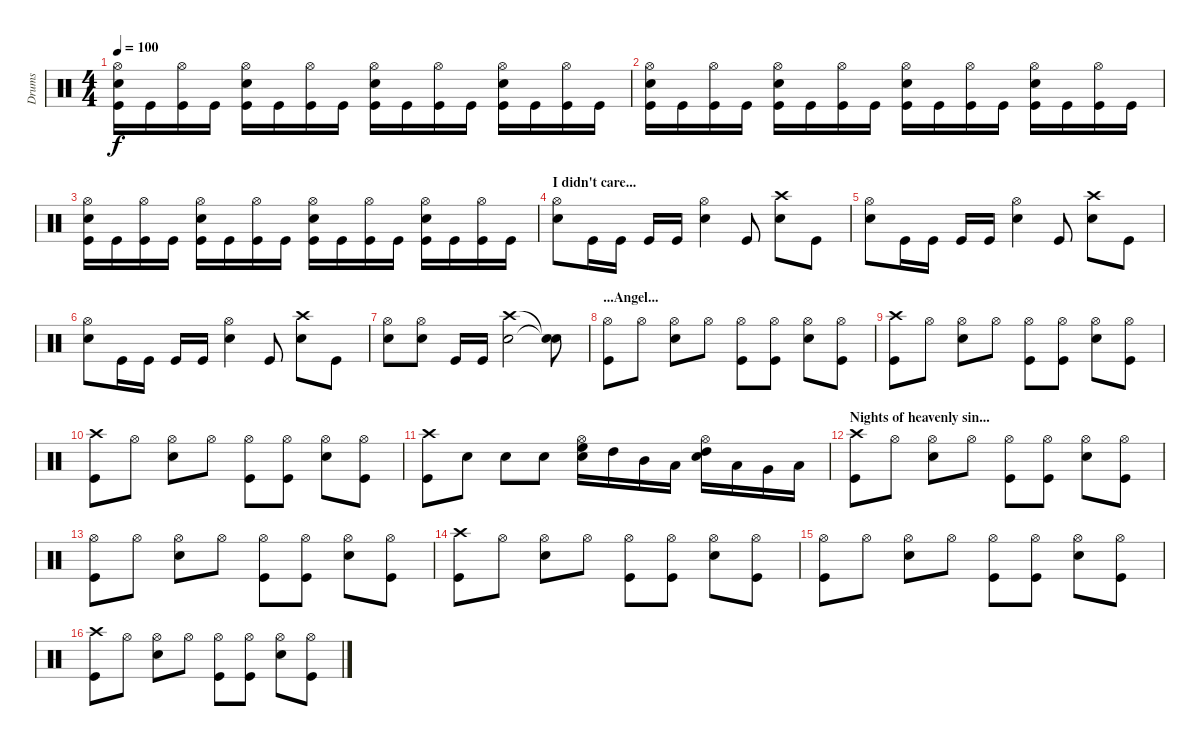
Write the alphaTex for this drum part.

\track ("Drums" "Drums") {instrument percussion}
\staff {score}
\articulation defaults
\ts (4 4)
\tempo 100
\clef neutral
\ks c
("Hi-Hat (open)" "Snare (hit) 2" "Kick (hit)").16{dy f} "Kick (hit)".16 ("Hi-Hat (open)" "Kick (hit)").16 "Kick (hit)".16 ("Hi-Hat (open)" "Snare (hit) 2" "Kick (hit)").16 "Kick (hit)".16 ("Hi-Hat (open)" "Kick (hit)").16 "Kick (hit)".16 ("Hi-Hat (open)" "Snare (hit) 2" "Kick (hit)").16 "Kick (hit)".16 ("Hi-Hat (open)" "Kick (hit)").16 "Kick (hit)".16 ("Hi-Hat (open)" "Snare (hit) 2" "Kick (hit)").16 "Kick (hit)".16 ("Hi-Hat (open)" "Kick (hit)").16 "Kick (hit)".16 |
("Hi-Hat (open)" "Snare (hit) 2" "Kick (hit)").16 "Kick (hit)".16 ("Hi-Hat (open)" "Kick (hit)").16 "Kick (hit)".16 ("Hi-Hat (open)" "Snare (hit) 2" "Kick (hit)").16 "Kick (hit)".16 ("Hi-Hat (open)" "Kick (hit)").16 "Kick (hit)".16 ("Hi-Hat (open)" "Snare (hit) 2" "Kick (hit)").16 "Kick (hit)".16 ("Hi-Hat (open)" "Kick (hit)").16 "Kick (hit)".16 ("Hi-Hat (open)" "Snare (hit) 2" "Kick (hit)").16 "Kick (hit)".16 ("Hi-Hat (open)" "Kick (hit)").16 "Kick (hit)".16 |
("Hi-Hat (open)" "Snare (hit) 2" "Kick (hit)").16 "Kick (hit)".16 ("Hi-Hat (open)" "Kick (hit)").16 "Kick (hit)".16 ("Hi-Hat (open)" "Snare (hit) 2" "Kick (hit)").16 "Kick (hit)".16 ("Hi-Hat (open)" "Kick (hit)").16 "Kick (hit)".16 ("Hi-Hat (open)" "Snare (hit) 2" "Kick (hit)").16 "Kick (hit)".16 ("Hi-Hat (open)" "Kick (hit)").16 "Kick (hit)".16 ("Hi-Hat (open)" "Snare (hit) 2" "Kick (hit)").16 "Kick (hit)".16 ("Hi-Hat (open)" "Kick (hit)").16 "Kick (hit)".16 |
\section ("" "I didn't care...")
("Hi-Hat (open)" "Snare (hit) 2").8 "Kick (hit)".16 "Kick (hit)".16 "Kick (hit)".16 "Kick (hit)".16 ("Hi-Hat (open)" "Snare (hit) 2").4 "Kick (hit)".8 ("Crash high (hit)" "Snare (hit) 2").8 "Kick (hit)".8 |
("Hi-Hat (open)" "Snare (hit) 2").8 "Kick (hit)".16 "Kick (hit)".16 "Kick (hit)".16 "Kick (hit)".16 ("Hi-Hat (open)" "Snare (hit) 2").4 "Kick (hit)".8 ("Crash high (hit)" "Snare (hit) 2").8 "Kick (hit)".8 |
("Hi-Hat (open)" "Snare (hit) 2").8 "Kick (hit)".16 "Kick (hit)".16 "Kick (hit)".16 "Kick (hit)".16 ("Hi-Hat (open)" "Snare (hit) 2").4 "Kick (hit)".8 ("Crash high (hit)" "Snare (hit) 2").8 "Kick (hit)".8 |
("Hi-Hat (open)" "Snare (hit) 2").8 ("Hi-Hat (open)" "Snare (hit) 2").8 "Kick (hit)".16 "Kick (hit)".16 ("Crash high (hit)" "Snare (hit) 2").2 ("Snare (hit)"{t} "Snare (hit)"{t}).8 |
\section ("" "...Angel...")
("Hi-Hat (open)" "Kick (hit)").8 "Hi-Hat (open)".8 ("Hi-Hat (open)" "Snare (hit) 2").8 "Hi-Hat (open)".8 ("Hi-Hat (open)" "Kick (hit)").8 ("Hi-Hat (open)" "Kick (hit)").8 ("Hi-Hat (open)" "Snare (hit) 2").8 ("Hi-Hat (open)" "Kick (hit)").8 |
("Crash high (hit)" "Kick (hit)").8 "Hi-Hat (open)".8 ("Hi-Hat (open)" "Snare (hit) 2").8 "Hi-Hat (open)".8 ("Hi-Hat (open)" "Kick (hit)").8 ("Hi-Hat (open)" "Kick (hit)").8 ("Hi-Hat (open)" "Snare (hit) 2").8 ("Hi-Hat (open)" "Kick (hit)").8 |
("Crash high (hit)" "Kick (hit)").8 "Hi-Hat (open)".8 ("Hi-Hat (open)" "Snare (hit) 2").8 "Hi-Hat (open)".8 ("Hi-Hat (open)" "Kick (hit)").8 ("Hi-Hat (open)" "Kick (hit)").8 ("Hi-Hat (open)" "Snare (hit) 2").8 ("Hi-Hat (open)" "Kick (hit)").8 |
("Crash high (hit)" "Kick (hit)").8 "Snare (hit) 2".8 "Snare (hit) 2".8 "Snare (hit) 2".8 ("Hi-Hat (open)" "Snare (hit) 2" "High Floor Tom (hit)").16 "High Tom (hit)".16 "Mid Tom (hit)".16 "Low Tom (hit)".16 ("Hi-Hat (open)" "Snare (hit) 2" "High Tom (hit)").16 "Low Tom (hit)".16 "Very Low Tom (hit)".16 "Low Floor Tom (hit)".16 |
\section ("" "Nights of heavenly sin...")
("Crash high (hit)" "Kick (hit)").8 "Hi-Hat (open)".8 ("Hi-Hat (open)" "Snare (hit) 2").8 "Hi-Hat (open)".8 ("Hi-Hat (open)" "Kick (hit)").8 ("Hi-Hat (open)" "Kick (hit)").8 ("Hi-Hat (open)" "Snare (hit) 2").8 ("Hi-Hat (open)" "Kick (hit)").8 |
("Hi-Hat (open)" "Kick (hit)").8 "Hi-Hat (open)".8 ("Hi-Hat (open)" "Snare (hit) 2").8 "Hi-Hat (open)".8 ("Hi-Hat (open)" "Kick (hit)").8 ("Hi-Hat (open)" "Kick (hit)").8 ("Hi-Hat (open)" "Snare (hit) 2").8 ("Hi-Hat (open)" "Kick (hit)").8 |
("Crash high (hit)" "Kick (hit)").8 "Hi-Hat (open)".8 ("Hi-Hat (open)" "Snare (hit) 2").8 "Hi-Hat (open)".8 ("Hi-Hat (open)" "Kick (hit)").8 ("Hi-Hat (open)" "Kick (hit)").8 ("Hi-Hat (open)" "Snare (hit) 2").8 ("Hi-Hat (open)" "Kick (hit)").8 |
("Hi-Hat (open)" "Kick (hit)").8 "Hi-Hat (open)".8 ("Hi-Hat (open)" "Snare (hit) 2").8 "Hi-Hat (open)".8 ("Hi-Hat (open)" "Kick (hit)").8 ("Hi-Hat (open)" "Kick (hit)").8 ("Hi-Hat (open)" "Snare (hit) 2").8 ("Hi-Hat (open)" "Kick (hit)").8 |
("Crash high (hit)" "Kick (hit)").8 "Hi-Hat (open)".8 ("Hi-Hat (open)" "Snare (hit) 2").8 "Hi-Hat (open)".8 ("Hi-Hat (open)" "Kick (hit)").8 ("Hi-Hat (open)" "Kick (hit)").8 ("Hi-Hat (open)" "Snare (hit) 2").8 ("Hi-Hat (open)" "Kick (hit)").8
